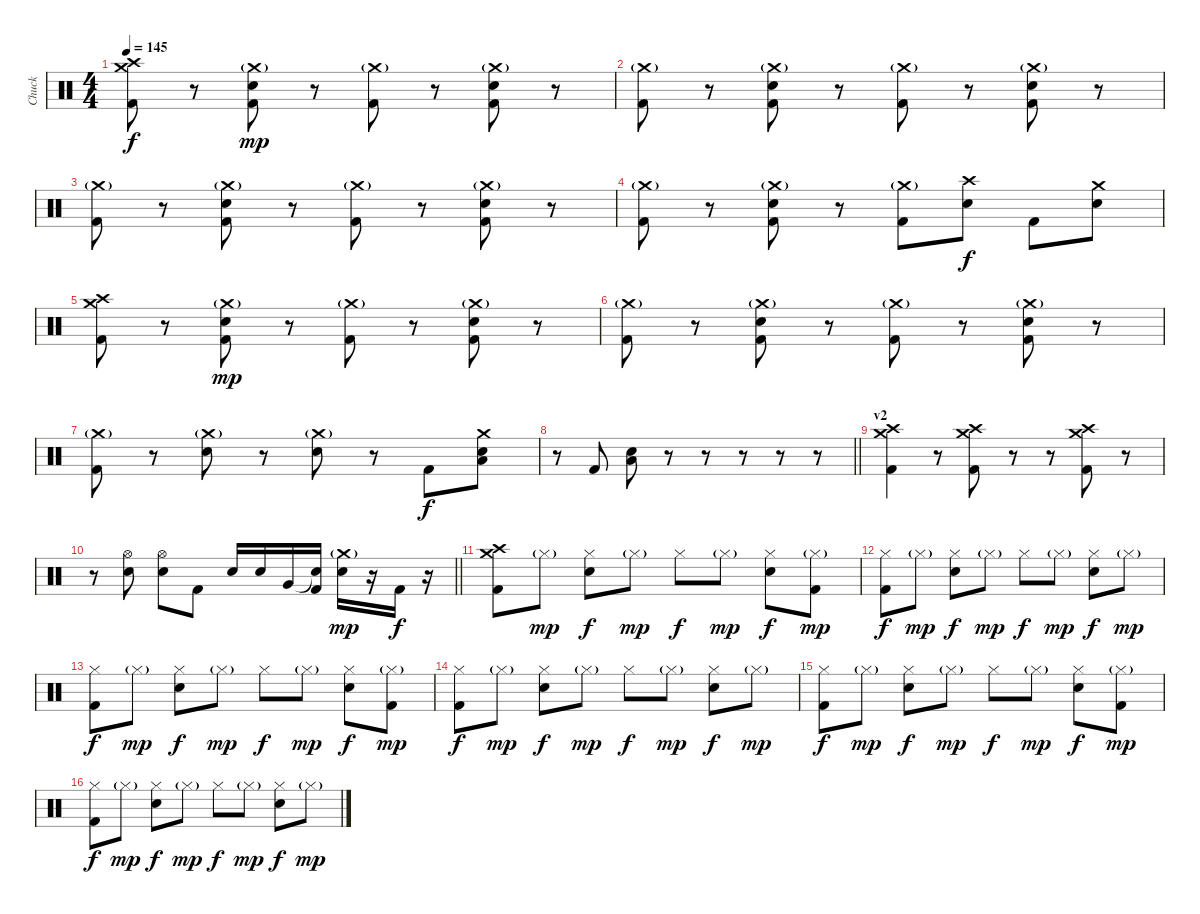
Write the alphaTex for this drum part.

\track ("Chuck" "Chuck") {instrument percussion}
\staff {score}
\articulation defaults
\ts (4 4)
\tempo 145
\clef neutral
\ks c
("Crash medium (hit)" "Crash high (hit)" "Kick (hit) 2").8{dy f} r.8 ("Crash medium (hit)"{g} "Snare (hit) 2" "Kick (hit) 2").8{dy mp} r.8 ("Crash medium (hit)"{g} "Kick (hit) 2").8 r.8 ("Crash medium (hit)"{g} "Snare (hit) 2" "Kick (hit) 2").8 r.8 |
("Crash medium (hit)"{g} "Kick (hit) 2").8 r.8 ("Crash medium (hit)"{g} "Snare (hit) 2" "Kick (hit) 2").8 r.8 ("Crash medium (hit)"{g} "Kick (hit) 2").8 r.8 ("Crash medium (hit)"{g} "Snare (hit) 2" "Kick (hit) 2").8 r.8 |
("Crash medium (hit)"{g} "Kick (hit) 2").8 r.8 ("Crash medium (hit)"{g} "Snare (hit) 2" "Kick (hit) 2").8 r.8 ("Crash medium (hit)"{g} "Kick (hit) 2").8 r.8 ("Crash medium (hit)"{g} "Snare (hit) 2" "Kick (hit) 2").8 r.8 |
("Crash medium (hit)"{g} "Kick (hit) 2").8 r.8 ("Crash medium (hit)"{g} "Snare (hit) 2" "Kick (hit) 2").8 r.8 ("Crash medium (hit)"{g} "Kick (hit) 2").8 ("Crash high (hit)" "Snare (hit) 2").8{dy f} "Kick (hit) 2".8 ("Crash medium (hit)" "Snare (hit) 2").8 |
("Crash medium (hit)" "Crash high (hit)" "Kick (hit) 2").8 r.8 ("Crash medium (hit)"{g} "Snare (hit) 2" "Kick (hit) 2").8{dy mp} r.8 ("Crash medium (hit)"{g} "Kick (hit) 2").8 r.8 ("Crash medium (hit)"{g} "Snare (hit) 2" "Kick (hit) 2").8 r.8 |
("Crash medium (hit)"{g} "Kick (hit) 2").8 r.8 ("Crash medium (hit)"{g} "Snare (hit) 2" "Kick (hit) 2").8 r.8 ("Crash medium (hit)"{g} "Kick (hit) 2").8 r.8 ("Crash medium (hit)"{g} "Snare (hit) 2" "Kick (hit) 2").8 r.8 |
("Crash medium (hit)"{g} "Kick (hit) 2").8 r.8 ("Crash medium (hit)"{g} "Snare (hit) 2").8 r.8 ("Crash medium (hit)"{g} "Snare (hit) 2").8 r.8 "Kick (hit) 2".8{dy f} ("Crash medium (hit)" "Snare (hit) 2" "Low Floor Tom (hit)").8 |
\barLineRight lightlight
r.8 "Kick (hit) 2".8 ("Low Floor Tom (hit)" "Snare (hit) 2").8 r.8 r.8 r.8 r.8 r.8 |
\section ("" "v2")
("Crash medium (hit)" "Crash high (hit)" "Kick (hit) 2").4 r.8 ("Crash medium (hit)" "Crash high (hit)" "Kick (hit) 2").8 r.8 r.8 ("Crash medium (hit)" "Crash high (hit)" "Kick (hit) 2").8 r.8 |
\barLineRight lightlight
r.8 ("Hi-Hat (open)" "Snare (hit) 2").8 ("Hi-Hat (open)" "Snare (hit) 2").8 "Kick (hit) 2".8 "Snare (hit) 2".16 "Snare (hit) 2".16 "Very Low Tom (hit)".16 ("Snare (hit)"{t} "Kick (hit) 2").16 ("Crash medium (hit)"{g} "Snare (hit) 2").16{dy mp} r.16 "Kick (hit) 2".16{dy f} r.16 |
("Crash medium (hit)" "Crash high (hit)" "Kick (hit) 2").8 "Hi-Hat (closed)"{g}.8{dy mp} ("Hi-Hat (closed)" "Snare (hit) 2").8{dy f} "Hi-Hat (closed)"{g}.8{dy mp} "Hi-Hat (closed)".8{dy f} "Hi-Hat (closed)"{g}.8{dy mp} ("Hi-Hat (closed)" "Snare (hit) 2").8{dy f} ("Hi-Hat (closed)"{g} "Kick (hit) 2").8{dy mp} |
("Hi-Hat (closed)" "Kick (hit) 2").8{dy f} "Hi-Hat (closed)"{g}.8{dy mp} ("Hi-Hat (closed)" "Snare (hit) 2").8{dy f} "Hi-Hat (closed)"{g}.8{dy mp} "Hi-Hat (closed)".8{dy f} "Hi-Hat (closed)"{g}.8{dy mp} ("Hi-Hat (closed)" "Snare (hit) 2").8{dy f} "Hi-Hat (closed)"{g}.8{dy mp} |
("Hi-Hat (closed)" "Kick (hit) 2").8{dy f} "Hi-Hat (closed)"{g}.8{dy mp} ("Hi-Hat (closed)" "Snare (hit) 2").8{dy f} "Hi-Hat (closed)"{g}.8{dy mp} "Hi-Hat (closed)".8{dy f} "Hi-Hat (closed)"{g}.8{dy mp} ("Hi-Hat (closed)" "Snare (hit) 2").8{dy f} ("Hi-Hat (closed)"{g} "Kick (hit) 2").8{dy mp} |
("Hi-Hat (closed)" "Kick (hit) 2").8{dy f} "Hi-Hat (closed)"{g}.8{dy mp} ("Hi-Hat (closed)" "Snare (hit) 2").8{dy f} "Hi-Hat (closed)"{g}.8{dy mp} "Hi-Hat (closed)".8{dy f} "Hi-Hat (closed)"{g}.8{dy mp} ("Hi-Hat (closed)" "Snare (hit) 2").8{dy f} "Hi-Hat (closed)"{g}.8{dy mp} |
("Hi-Hat (closed)" "Kick (hit) 2").8{dy f} "Hi-Hat (closed)"{g}.8{dy mp} ("Hi-Hat (closed)" "Snare (hit) 2").8{dy f} "Hi-Hat (closed)"{g}.8{dy mp} "Hi-Hat (closed)".8{dy f} "Hi-Hat (closed)"{g}.8{dy mp} ("Hi-Hat (closed)" "Snare (hit) 2").8{dy f} ("Hi-Hat (closed)"{g} "Kick (hit) 2").8{dy mp} |
("Hi-Hat (closed)" "Kick (hit) 2").8{dy f} "Hi-Hat (closed)"{g}.8{dy mp} ("Hi-Hat (closed)" "Snare (hit) 2").8{dy f} "Hi-Hat (closed)"{g}.8{dy mp} "Hi-Hat (closed)".8{dy f} "Hi-Hat (closed)"{g}.8{dy mp} ("Hi-Hat (closed)" "Snare (hit) 2").8{dy f} "Hi-Hat (closed)"{g}.8{dy mp}
